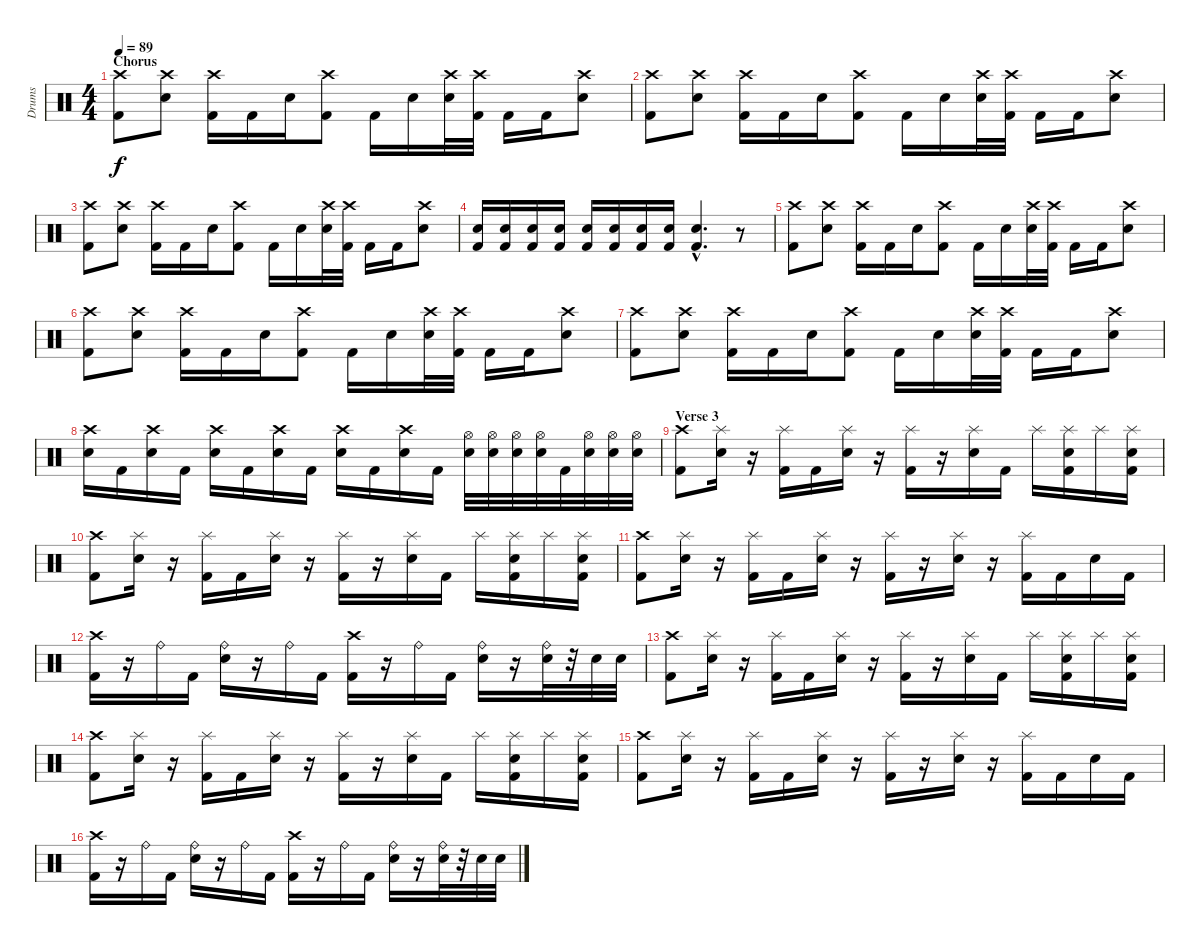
\track ("Drums" "Drums") {instrument percussion}
\staff {score}
\articulation defaults
\ts (4 4)
\section ("" "Chorus")
\tempo 89
\clef neutral
\ks c
("Crash high (hit)" "Kick (hit) 2").8{dy f} ("Crash high (hit)" "Electric Snare (hit)").8 ("Crash high (hit)" "Kick (hit) 2").16 "Kick (hit) 2".16 "Electric Snare (hit)".16 ("Crash high (hit)" "Kick (hit) 2").8 "Kick (hit) 2".16 "Electric Snare (hit)".16 ("Crash high (hit)" "Electric Snare (hit)").32 ("Crash high (hit)" "Kick (hit) 2").32 "Kick (hit) 2".16 "Kick (hit) 2".16 ("Crash high (hit)" "Electric Snare (hit)").8 |
("Crash high (hit)" "Kick (hit) 2").8 ("Crash high (hit)" "Electric Snare (hit)").8 ("Crash high (hit)" "Kick (hit) 2").16 "Kick (hit) 2".16 "Electric Snare (hit)".16 ("Crash high (hit)" "Kick (hit) 2").8 "Kick (hit) 2".16 "Electric Snare (hit)".16 ("Crash high (hit)" "Electric Snare (hit)").32 ("Crash high (hit)" "Kick (hit) 2").32 "Kick (hit) 2".16 "Kick (hit) 2".16 ("Crash high (hit)" "Electric Snare (hit)").8 |
("Crash high (hit)" "Kick (hit) 2").8 ("Crash high (hit)" "Electric Snare (hit)").8 ("Crash high (hit)" "Kick (hit) 2").16 "Kick (hit) 2".16 "Electric Snare (hit)".16 ("Crash high (hit)" "Kick (hit) 2").8 "Kick (hit) 2".16 "Electric Snare (hit)".16 ("Crash high (hit)" "Electric Snare (hit)").32 ("Crash high (hit)" "Kick (hit) 2").32 "Kick (hit) 2".16 "Kick (hit) 2".16 ("Crash high (hit)" "Electric Snare (hit)").8 |
("Electric Snare (hit)" "Kick (hit) 2").16 ("Electric Snare (hit)" "Kick (hit) 2").16 ("Electric Snare (hit)" "Kick (hit) 2").16 ("Electric Snare (hit)" "Kick (hit) 2").16 ("Electric Snare (hit)" "Kick (hit) 2").16 ("Electric Snare (hit)" "Kick (hit) 2").16 ("Electric Snare (hit)" "Kick (hit) 2").16 ("Electric Snare (hit)" "Kick (hit) 2").16 ("Electric Snare (hit)"{hac} "Kick (hit) 2"{hac}).4{d} r.8 |
("Crash high (hit)" "Kick (hit) 2").8 ("Crash high (hit)" "Electric Snare (hit)").8 ("Crash high (hit)" "Kick (hit) 2").16 "Kick (hit) 2".16 "Electric Snare (hit)".16 ("Crash high (hit)" "Kick (hit) 2").8 "Kick (hit) 2".16 "Electric Snare (hit)".16 ("Crash high (hit)" "Electric Snare (hit)").32 ("Crash high (hit)" "Kick (hit) 2").32 "Kick (hit) 2".16 "Kick (hit) 2".16 ("Crash high (hit)" "Electric Snare (hit)").8 |
("Crash high (hit)" "Kick (hit) 2").8 ("Crash high (hit)" "Electric Snare (hit)").8 ("Crash high (hit)" "Kick (hit) 2").16 "Kick (hit) 2".16 "Electric Snare (hit)".16 ("Crash high (hit)" "Kick (hit) 2").8 "Kick (hit) 2".16 "Electric Snare (hit)".16 ("Crash high (hit)" "Electric Snare (hit)").32 ("Crash high (hit)" "Kick (hit) 2").32 "Kick (hit) 2".16 "Kick (hit) 2".16 ("Crash high (hit)" "Electric Snare (hit)").8 |
("Crash high (hit)" "Kick (hit) 2").8 ("Crash high (hit)" "Electric Snare (hit)").8 ("Crash high (hit)" "Kick (hit) 2").16 "Kick (hit) 2".16 "Electric Snare (hit)".16 ("Crash high (hit)" "Kick (hit) 2").8 "Kick (hit) 2".16 "Electric Snare (hit)".16 ("Crash high (hit)" "Electric Snare (hit)").32 ("Crash high (hit)" "Kick (hit) 2").32 "Kick (hit) 2".16 "Kick (hit) 2".16 ("Crash high (hit)" "Electric Snare (hit)").8 |
("Crash high (hit)" "Electric Snare (hit)").16 "Kick (hit) 2".16 ("Crash high (hit)" "Electric Snare (hit)").16 "Kick (hit) 2".16 ("Crash high (hit)" "Electric Snare (hit)").16 "Kick (hit) 2".16 ("Crash high (hit)" "Electric Snare (hit)").16 "Kick (hit) 2".16 ("Crash high (hit)" "Electric Snare (hit)").16 "Kick (hit) 2".16 ("Crash high (hit)" "Electric Snare (hit)").16 "Kick (hit) 2".16 ("Hi-Hat (open)" "Electric Snare (hit)").32 ("Hi-Hat (open)" "Electric Snare (hit)").32 ("Hi-Hat (open)" "Electric Snare (hit)").32 ("Hi-Hat (open)" "Electric Snare (hit)").32 "Kick (hit) 2".32 ("Hi-Hat (open)" "Electric Snare (hit)").32 ("Hi-Hat (open)" "Electric Snare (hit)").32 ("Hi-Hat (open)" "Electric Snare (hit)").32 |
\section ("" "Verse 3")
("Crash high (hit)" "Kick (hit) 2").8 ("Splash (hit)" "Electric Snare (hit)").16 r.16 ("Splash (hit)" "Kick (hit) 2").16 "Kick (hit) 2".16 ("Splash (hit)" "Electric Snare (hit)").16 r.16 ("Splash (hit)" "Kick (hit) 2").16 r.16 ("Splash (hit)" "Electric Snare (hit)").16 "Kick (hit) 2".16 "Splash (hit)".16 ("Splash (hit)" "Electric Snare (hit)" "Kick (hit) 2").16 "Splash (hit)".16 ("Splash (hit)" "Electric Snare (hit)" "Kick (hit) 2").16 |
("Crash high (hit)" "Kick (hit) 2").8 ("Splash (hit)" "Electric Snare (hit)").16 r.16 ("Splash (hit)" "Kick (hit) 2").16 "Kick (hit) 2".16 ("Splash (hit)" "Electric Snare (hit)").16 r.16 ("Splash (hit)" "Kick (hit) 2").16 r.16 ("Splash (hit)" "Electric Snare (hit)").16 "Kick (hit) 2".16 "Splash (hit)".16 ("Splash (hit)" "Electric Snare (hit)" "Kick (hit) 2").16 "Splash (hit)".16 ("Splash (hit)" "Electric Snare (hit)" "Kick (hit) 2").16 |
("Crash high (hit)" "Kick (hit) 2").8 ("Splash (hit)" "Electric Snare (hit)").16 r.16 ("Splash (hit)" "Kick (hit) 2").16 "Kick (hit) 2".16 ("Splash (hit)" "Electric Snare (hit)").16 r.16 ("Splash (hit)" "Kick (hit) 2").16 r.16 ("Splash (hit)" "Electric Snare (hit)").16 r.16 ("Splash (hit)" "Kick (hit) 2").16 "Kick (hit) 2".16 "Electric Snare (hit)".16 "Kick (hit) 2".16 |
("Crash high (hit)" "Kick (hit) 2").16 r.16 "Ride (bell)".16 "Kick (hit) 2".16 ("Ride (bell)" "Electric Snare (hit)").16 r.16 "Ride (bell)".16 "Kick (hit) 2".16 ("Crash high (hit)" "Kick (hit) 2").16 r.16 "Ride (bell)".16 "Kick (hit) 2".16 ("Ride (bell)" "Electric Snare (hit)").16 r.16 ("Ride (bell)" "Electric Snare (hit)").32 r.32 "Electric Snare (hit)".32 "Electric Snare (hit)".32 |
("Crash high (hit)" "Kick (hit) 2").8 ("Splash (hit)" "Electric Snare (hit)").16 r.16 ("Splash (hit)" "Kick (hit) 2").16 "Kick (hit) 2".16 ("Splash (hit)" "Electric Snare (hit)").16 r.16 ("Splash (hit)" "Kick (hit) 2").16 r.16 ("Splash (hit)" "Electric Snare (hit)").16 "Kick (hit) 2".16 "Splash (hit)".16 ("Splash (hit)" "Electric Snare (hit)" "Kick (hit) 2").16 "Splash (hit)".16 ("Splash (hit)" "Electric Snare (hit)" "Kick (hit) 2").16 |
("Crash high (hit)" "Kick (hit) 2").8 ("Splash (hit)" "Electric Snare (hit)").16 r.16 ("Splash (hit)" "Kick (hit) 2").16 "Kick (hit) 2".16 ("Splash (hit)" "Electric Snare (hit)").16 r.16 ("Splash (hit)" "Kick (hit) 2").16 r.16 ("Splash (hit)" "Electric Snare (hit)").16 "Kick (hit) 2".16 "Splash (hit)".16 ("Splash (hit)" "Electric Snare (hit)" "Kick (hit) 2").16 "Splash (hit)".16 ("Splash (hit)" "Electric Snare (hit)" "Kick (hit) 2").16 |
("Crash high (hit)" "Kick (hit) 2").8 ("Splash (hit)" "Electric Snare (hit)").16 r.16 ("Splash (hit)" "Kick (hit) 2").16 "Kick (hit) 2".16 ("Splash (hit)" "Electric Snare (hit)").16 r.16 ("Splash (hit)" "Kick (hit) 2").16 r.16 ("Splash (hit)" "Electric Snare (hit)").16 r.16 ("Splash (hit)" "Kick (hit) 2").16 "Kick (hit) 2".16 "Electric Snare (hit)".16 "Kick (hit) 2".16 |
("Crash high (hit)" "Kick (hit) 2").16 r.16 "Ride (bell)".16 "Kick (hit) 2".16 ("Ride (bell)" "Electric Snare (hit)").16 r.16 "Ride (bell)".16 "Kick (hit) 2".16 ("Crash high (hit)" "Kick (hit) 2").16 r.16 "Ride (bell)".16 "Kick (hit) 2".16 ("Ride (bell)" "Electric Snare (hit)").16 r.16 ("Ride (bell)" "Electric Snare (hit)").32 r.32 "Electric Snare (hit)".32 "Electric Snare (hit)".32
